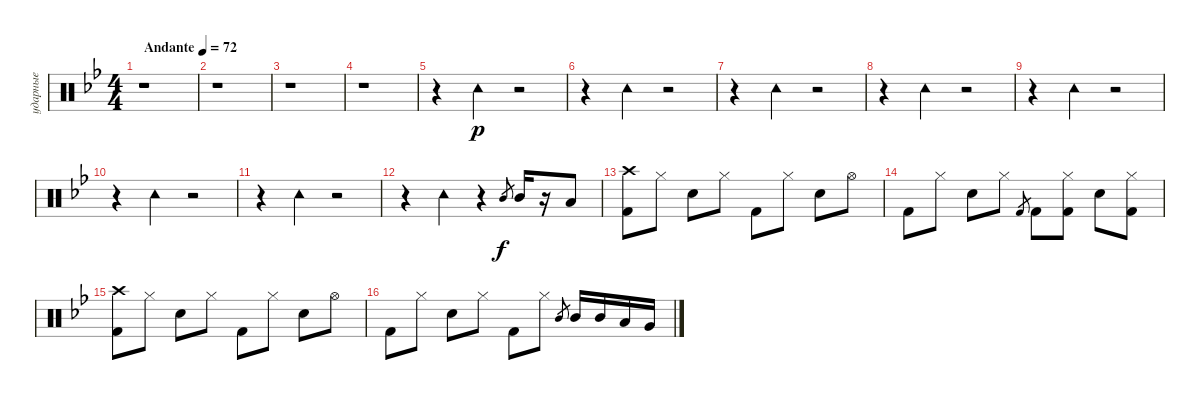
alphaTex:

\track ("ударные" "ударные") {instrument percussion}
\staff {score}
\articulation defaults
\ts (4 4)
\tempo (72 "Andante")
\clef neutral
\ks gminor
r.1{dy p} |
r.1 |
r.1 |
r.1 |
r.4 "Tambourine (hit)".4 r.2 |
r.4 "Tambourine (hit)".4 r.2 |
r.4 "Tambourine (hit)".4 r.2 |
r.4 "Tambourine (hit)".4 r.2 |
r.4 "Tambourine (hit)".4 r.2 |
r.4 "Tambourine (hit)".4 r.2 |
r.4 "Tambourine (hit)".4 r.2 |
r.4 "Tambourine (hit)".4 r.4 "Mid Tom (hit)".8{gr dy f} "Mid Tom (hit)".16 r.16 "Low Tom (hit)".8 |
("Crash high (hit)" "Kick (hit) 2").8 "Hi-Hat (closed)".8 "Electric Snare (hit)".8 "Hi-Hat (closed)".8 "Kick (hit) 2".8 "Hi-Hat (closed)".8 "Electric Snare (hit)".8 "Hi-Hat (open)".8 |
"Kick (hit) 2".8 "Hi-Hat (closed)".8 "Electric Snare (hit)".8 "Hi-Hat (closed)".8 "Kick (hit) 2".8{gr} "Kick (hit) 2".8 ("Hi-Hat (closed)" "Kick (hit) 2").8 "Electric Snare (hit)".8 ("Hi-Hat (closed)" "Kick (hit) 2").8 |
("Crash high (hit)" "Kick (hit) 2").8 "Hi-Hat (closed)".8 "Electric Snare (hit)".8 "Hi-Hat (closed)".8 "Kick (hit) 2".8 "Hi-Hat (closed)".8 "Electric Snare (hit)".8 "Hi-Hat (open)".8 |
"Kick (hit) 2".8 "Hi-Hat (closed)".8 "Electric Snare (hit)".8 "Hi-Hat (closed)".8 "Kick (hit) 2".8 "Hi-Hat (closed)".8 "Mid Tom (hit)".8{gr} "Mid Tom (hit)".16 "Mid Tom (hit)".16 "Low Tom (hit)".16 "Very Low Tom (hit)".16
